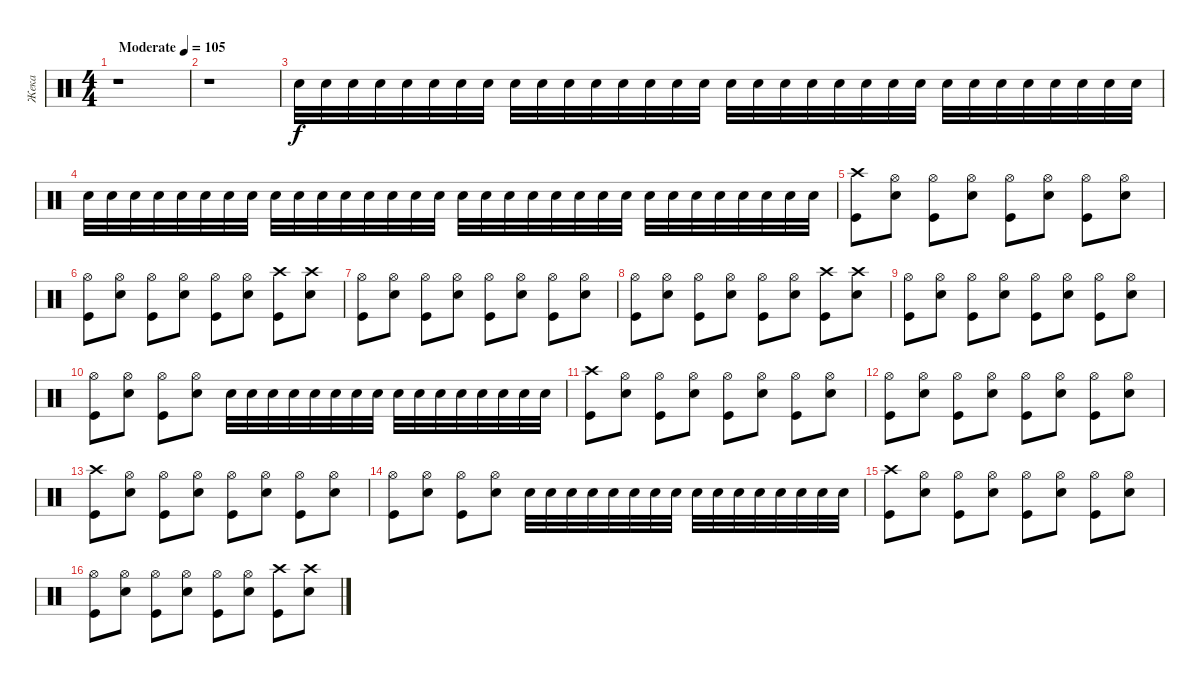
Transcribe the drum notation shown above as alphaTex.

\track ("Жека" "Жека") {instrument percussion}
\staff {score}
\articulation defaults
\ts (4 4)
\tempo (105 "Moderate")
\clef neutral
\ks c
r.1{dy f} |
r.1 |
"Snare (hit) 2".32 "Snare (hit) 2".32 "Snare (hit) 2".32 "Snare (hit) 2".32 "Snare (hit) 2".32 "Snare (hit) 2".32 "Snare (hit) 2".32 "Snare (hit) 2".32 "Snare (hit) 2".32 "Snare (hit) 2".32 "Snare (hit) 2".32 "Snare (hit) 2".32 "Snare (hit) 2".32 "Snare (hit) 2".32 "Snare (hit) 2".32 "Snare (hit) 2".32 "Snare (hit) 2".32 "Snare (hit) 2".32 "Snare (hit) 2".32 "Snare (hit) 2".32 "Snare (hit) 2".32 "Snare (hit) 2".32 "Snare (hit) 2".32 "Snare (hit) 2".32 "Snare (hit) 2".32 "Snare (hit) 2".32 "Snare (hit) 2".32 "Snare (hit) 2".32 "Snare (hit) 2".32 "Snare (hit) 2".32 "Snare (hit) 2".32 "Snare (hit) 2".32 |
"Snare (hit) 2".32 "Snare (hit) 2".32 "Snare (hit) 2".32 "Snare (hit) 2".32 "Snare (hit) 2".32 "Snare (hit) 2".32 "Snare (hit) 2".32 "Snare (hit) 2".32 "Snare (hit) 2".32 "Snare (hit) 2".32 "Snare (hit) 2".32 "Snare (hit) 2".32 "Snare (hit) 2".32 "Snare (hit) 2".32 "Snare (hit) 2".32 "Snare (hit) 2".32 "Snare (hit) 2".32 "Snare (hit) 2".32 "Snare (hit) 2".32 "Snare (hit) 2".32 "Snare (hit) 2".32 "Snare (hit) 2".32 "Snare (hit) 2".32 "Snare (hit) 2".32 "Snare (hit) 2".32 "Snare (hit) 2".32 "Snare (hit) 2".32 "Snare (hit) 2".32 "Snare (hit) 2".32 "Snare (hit) 2".32 "Snare (hit) 2".32 "Snare (hit) 2".32 |
("Crash high (hit)" "Kick (hit)").8 ("Hi-Hat (open)" "Snare (hit) 2").8 ("Hi-Hat (open)" "Kick (hit)").8 ("Hi-Hat (open)" "Snare (hit) 2").8 ("Hi-Hat (open)" "Kick (hit)").8 ("Hi-Hat (open)" "Snare (hit) 2").8 ("Hi-Hat (open)" "Kick (hit)").8 ("Hi-Hat (open)" "Snare (hit) 2").8 |
("Hi-Hat (open)" "Kick (hit)").8 ("Hi-Hat (open)" "Snare (hit) 2").8 ("Hi-Hat (open)" "Kick (hit)").8 ("Hi-Hat (open)" "Snare (hit) 2").8 ("Hi-Hat (open)" "Kick (hit)").8 ("Hi-Hat (open)" "Snare (hit) 2").8 ("Crash high (hit)" "Kick (hit)").8 ("Crash high (hit)" "Snare (hit) 2").8 |
("Hi-Hat (open)" "Kick (hit)").8 ("Hi-Hat (open)" "Snare (hit) 2").8 ("Hi-Hat (open)" "Kick (hit)").8 ("Hi-Hat (open)" "Snare (hit) 2").8 ("Hi-Hat (open)" "Kick (hit)").8 ("Hi-Hat (open)" "Snare (hit) 2").8 ("Hi-Hat (open)" "Kick (hit)").8 ("Hi-Hat (open)" "Snare (hit) 2").8 |
("Hi-Hat (open)" "Kick (hit)").8 ("Hi-Hat (open)" "Snare (hit) 2").8 ("Hi-Hat (open)" "Kick (hit)").8 ("Hi-Hat (open)" "Snare (hit) 2").8 ("Hi-Hat (open)" "Kick (hit)").8 ("Hi-Hat (open)" "Snare (hit) 2").8 ("Crash high (hit)" "Kick (hit)").8 ("Crash high (hit)" "Snare (hit) 2").8 |
("Hi-Hat (open)" "Kick (hit)").8 ("Hi-Hat (open)" "Snare (hit) 2").8 ("Hi-Hat (open)" "Kick (hit)").8 ("Hi-Hat (open)" "Snare (hit) 2").8 ("Hi-Hat (open)" "Kick (hit)").8 ("Hi-Hat (open)" "Snare (hit) 2").8 ("Hi-Hat (open)" "Kick (hit)").8 ("Hi-Hat (open)" "Snare (hit) 2").8 |
("Hi-Hat (open)" "Kick (hit)").8 ("Hi-Hat (open)" "Snare (hit) 2").8 ("Hi-Hat (open)" "Kick (hit)").8 ("Hi-Hat (open)" "Snare (hit) 2").8 "Snare (hit) 2".32 "Snare (hit) 2".32 "Snare (hit) 2".32 "Snare (hit) 2".32 "Snare (hit) 2".32 "Snare (hit) 2".32 "Snare (hit) 2".32 "Snare (hit) 2".32 "Snare (hit) 2".32 "Snare (hit) 2".32 "Snare (hit) 2".32 "Snare (hit) 2".32 "Snare (hit) 2".32 "Snare (hit) 2".32 "Snare (hit) 2".32 "Snare (hit) 2".32 |
("Crash high (hit)" "Kick (hit)").8 ("Hi-Hat (open)" "Snare (hit) 2").8 ("Hi-Hat (open)" "Kick (hit)").8 ("Hi-Hat (open)" "Snare (hit) 2").8 ("Hi-Hat (open)" "Kick (hit)").8 ("Hi-Hat (open)" "Snare (hit) 2").8 ("Hi-Hat (open)" "Kick (hit)").8 ("Hi-Hat (open)" "Snare (hit) 2").8 |
("Hi-Hat (open)" "Kick (hit)").8 ("Hi-Hat (open)" "Snare (hit) 2").8 ("Hi-Hat (open)" "Kick (hit)").8 ("Hi-Hat (open)" "Snare (hit) 2").8 ("Hi-Hat (open)" "Kick (hit)").8 ("Hi-Hat (open)" "Snare (hit) 2").8 ("Hi-Hat (open)" "Kick (hit)").8 ("Hi-Hat (open)" "Snare (hit) 2").8 |
("Crash high (hit)" "Kick (hit)").8 ("Hi-Hat (open)" "Snare (hit) 2").8 ("Hi-Hat (open)" "Kick (hit)").8 ("Hi-Hat (open)" "Snare (hit) 2").8 ("Hi-Hat (open)" "Kick (hit)").8 ("Hi-Hat (open)" "Snare (hit) 2").8 ("Hi-Hat (open)" "Kick (hit)").8 ("Hi-Hat (open)" "Snare (hit) 2").8 |
("Hi-Hat (open)" "Kick (hit)").8 ("Hi-Hat (open)" "Snare (hit) 2").8 ("Hi-Hat (open)" "Kick (hit)").8 ("Hi-Hat (open)" "Snare (hit) 2").8 "Snare (hit) 2".32 "Snare (hit) 2".32 "Snare (hit) 2".32 "Snare (hit) 2".32 "Snare (hit) 2".32 "Snare (hit) 2".32 "Snare (hit) 2".32 "Snare (hit) 2".32 "Snare (hit) 2".32 "Snare (hit) 2".32 "Snare (hit) 2".32 "Snare (hit) 2".32 "Snare (hit) 2".32 "Snare (hit) 2".32 "Snare (hit) 2".32 "Snare (hit) 2".32 |
("Crash high (hit)" "Kick (hit)").8 ("Hi-Hat (open)" "Snare (hit) 2").8 ("Hi-Hat (open)" "Kick (hit)").8 ("Hi-Hat (open)" "Snare (hit) 2").8 ("Hi-Hat (open)" "Kick (hit)").8 ("Hi-Hat (open)" "Snare (hit) 2").8 ("Hi-Hat (open)" "Kick (hit)").8 ("Hi-Hat (open)" "Snare (hit) 2").8 |
("Hi-Hat (open)" "Kick (hit)").8 ("Hi-Hat (open)" "Snare (hit) 2").8 ("Hi-Hat (open)" "Kick (hit)").8 ("Hi-Hat (open)" "Snare (hit) 2").8 ("Hi-Hat (open)" "Kick (hit)").8 ("Hi-Hat (open)" "Snare (hit) 2").8 ("Crash high (hit)" "Kick (hit)").8 ("Crash high (hit)" "Snare (hit) 2").8
